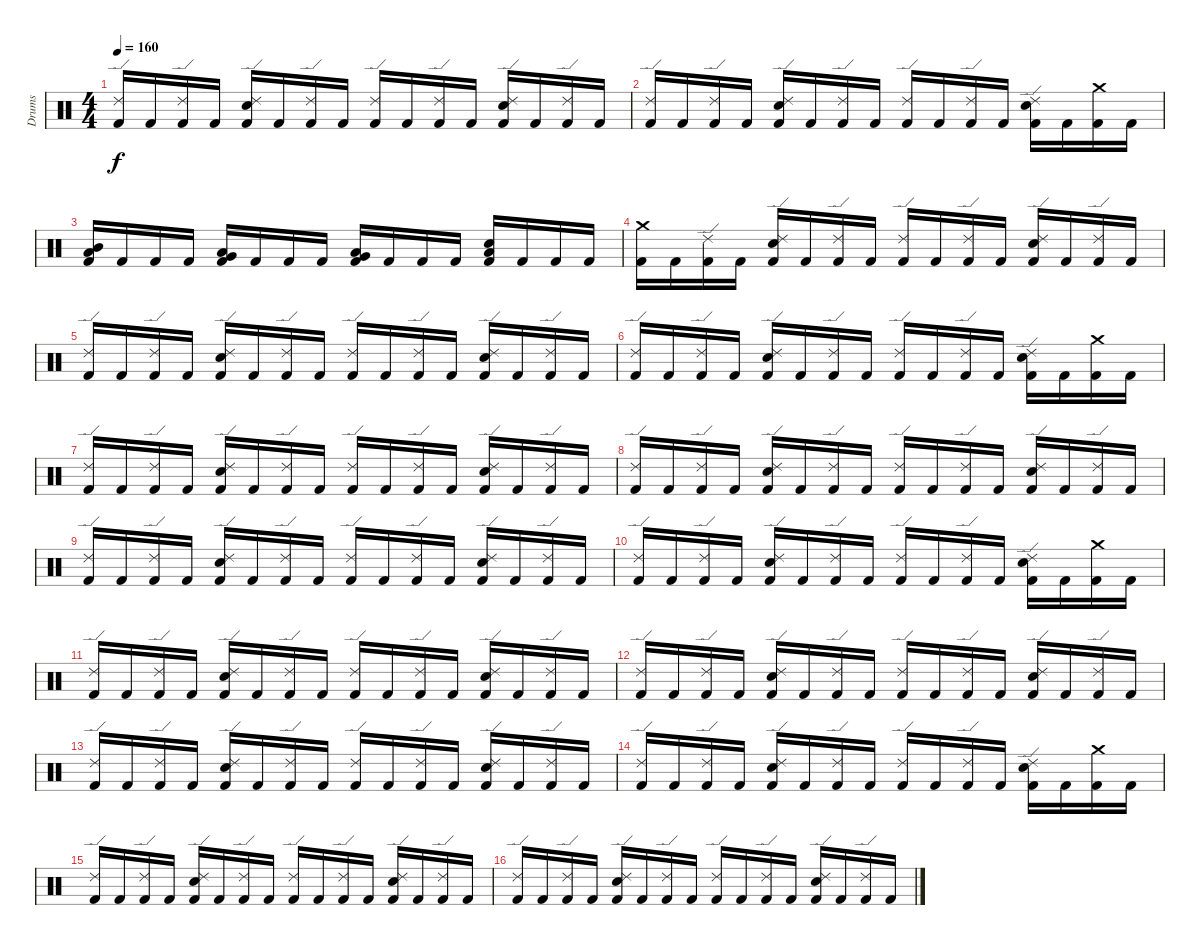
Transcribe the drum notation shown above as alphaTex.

\track ("Drums" "Drums") {instrument percussion}
\staff {score}
\articulation defaults
\ts (4 4)
\tempo 160
\clef neutral
\ks c
("Ride (edge) 2" "Kick (hit) 2").16{dy f} "Kick (hit) 2".16 ("Ride (edge) 2" "Kick (hit) 2").16 "Kick (hit) 2".16 ("Ride (edge) 2" "Electric Snare (hit)" "Kick (hit) 2").16 "Kick (hit) 2".16 ("Ride (edge) 2" "Kick (hit) 2").16 "Kick (hit) 2".16 ("Ride (edge) 2" "Kick (hit) 2").16 "Kick (hit) 2".16 ("Ride (edge) 2" "Kick (hit) 2").16 "Kick (hit) 2".16 ("Ride (edge) 2" "Electric Snare (hit)" "Kick (hit) 2").16 "Kick (hit) 2".16 ("Ride (edge) 2" "Kick (hit) 2").16 "Kick (hit) 2".16 |
("Ride (edge) 2" "Kick (hit) 2").16 "Kick (hit) 2".16 ("Ride (edge) 2" "Kick (hit) 2").16 "Kick (hit) 2".16 ("Ride (edge) 2" "Electric Snare (hit)" "Kick (hit) 2").16 "Kick (hit) 2".16 ("Ride (edge) 2" "Kick (hit) 2").16 "Kick (hit) 2".16 ("Ride (edge) 2" "Kick (hit) 2").16 "Kick (hit) 2".16 ("Ride (edge) 2" "Kick (hit) 2").16 "Kick (hit) 2".16 ("Ride (edge) 2" "Electric Snare (hit)" "Kick (hit) 2").16 "Kick (hit) 2".16 ("Crash medium (hit)" "Kick (hit) 2").16 "Kick (hit) 2".16 |
("Mid Tom (hit)" "Low Tom (hit)" "Kick (hit) 2").16 "Kick (hit) 2".16 "Kick (hit) 2".16 "Kick (hit) 2".16 ("Very Low Tom (hit)" "Low Tom (hit)" "Kick (hit) 2").16 "Kick (hit) 2".16 "Kick (hit) 2".16 "Kick (hit) 2".16 ("Low Floor Tom (hit)" "Very Low Tom (hit)" "Kick (hit) 2").16 "Kick (hit) 2".16 "Kick (hit) 2".16 "Kick (hit) 2".16 ("Low Floor Tom (hit)" "Electric Snare (hit)" "Kick (hit) 2").16 "Kick (hit) 2".16 "Kick (hit) 2".16 "Kick (hit) 2".16 |
("Kick (hit) 2" "Crash medium (hit)").16 "Kick (hit) 2".16 ("Ride (edge) 2" "Kick (hit) 2").16 "Kick (hit) 2".16 ("Ride (edge) 2" "Electric Snare (hit)" "Kick (hit) 2").16 "Kick (hit) 2".16 ("Ride (edge) 2" "Kick (hit) 2").16 "Kick (hit) 2".16 ("Ride (edge) 2" "Kick (hit) 2").16 "Kick (hit) 2".16 ("Ride (edge) 2" "Kick (hit) 2").16 "Kick (hit) 2".16 ("Ride (edge) 2" "Electric Snare (hit)" "Kick (hit) 2").16 "Kick (hit) 2".16 ("Ride (edge) 2" "Kick (hit) 2").16 "Kick (hit) 2".16 |
("Ride (edge) 2" "Kick (hit) 2").16 "Kick (hit) 2".16 ("Ride (edge) 2" "Kick (hit) 2").16 "Kick (hit) 2".16 ("Ride (edge) 2" "Electric Snare (hit)" "Kick (hit) 2").16 "Kick (hit) 2".16 ("Ride (edge) 2" "Kick (hit) 2").16 "Kick (hit) 2".16 ("Ride (edge) 2" "Kick (hit) 2").16 "Kick (hit) 2".16 ("Ride (edge) 2" "Kick (hit) 2").16 "Kick (hit) 2".16 ("Ride (edge) 2" "Electric Snare (hit)" "Kick (hit) 2").16 "Kick (hit) 2".16 ("Ride (edge) 2" "Kick (hit) 2").16 "Kick (hit) 2".16 |
("Ride (edge) 2" "Kick (hit) 2").16 "Kick (hit) 2".16 ("Ride (edge) 2" "Kick (hit) 2").16 "Kick (hit) 2".16 ("Ride (edge) 2" "Electric Snare (hit)" "Kick (hit) 2").16 "Kick (hit) 2".16 ("Ride (edge) 2" "Kick (hit) 2").16 "Kick (hit) 2".16 ("Ride (edge) 2" "Kick (hit) 2").16 "Kick (hit) 2".16 ("Ride (edge) 2" "Kick (hit) 2").16 "Kick (hit) 2".16 ("Ride (edge) 2" "Electric Snare (hit)" "Kick (hit) 2").16 "Kick (hit) 2".16 ("Crash medium (hit)" "Kick (hit) 2").16 "Kick (hit) 2".16 |
("Ride (edge) 2" "Kick (hit) 2").16 "Kick (hit) 2".16 ("Ride (edge) 2" "Kick (hit) 2").16 "Kick (hit) 2".16 ("Ride (edge) 2" "Electric Snare (hit)" "Kick (hit) 2").16 "Kick (hit) 2".16 ("Ride (edge) 2" "Kick (hit) 2").16 "Kick (hit) 2".16 ("Ride (edge) 2" "Kick (hit) 2").16 "Kick (hit) 2".16 ("Ride (edge) 2" "Kick (hit) 2").16 "Kick (hit) 2".16 ("Ride (edge) 2" "Electric Snare (hit)" "Kick (hit) 2").16 "Kick (hit) 2".16 ("Ride (edge) 2" "Kick (hit) 2").16 "Kick (hit) 2".16 |
("Ride (edge) 2" "Kick (hit) 2").16 "Kick (hit) 2".16 ("Ride (edge) 2" "Kick (hit) 2").16 "Kick (hit) 2".16 ("Ride (edge) 2" "Electric Snare (hit)" "Kick (hit) 2").16 "Kick (hit) 2".16 ("Ride (edge) 2" "Kick (hit) 2").16 "Kick (hit) 2".16 ("Ride (edge) 2" "Kick (hit) 2").16 "Kick (hit) 2".16 ("Ride (edge) 2" "Kick (hit) 2").16 "Kick (hit) 2".16 ("Ride (edge) 2" "Electric Snare (hit)" "Kick (hit) 2").16 "Kick (hit) 2".16 ("Ride (edge) 2" "Kick (hit) 2").16 "Kick (hit) 2".16 |
("Ride (edge) 2" "Kick (hit) 2").16 "Kick (hit) 2".16 ("Ride (edge) 2" "Kick (hit) 2").16 "Kick (hit) 2".16 ("Ride (edge) 2" "Electric Snare (hit)" "Kick (hit) 2").16 "Kick (hit) 2".16 ("Ride (edge) 2" "Kick (hit) 2").16 "Kick (hit) 2".16 ("Ride (edge) 2" "Kick (hit) 2").16 "Kick (hit) 2".16 ("Ride (edge) 2" "Kick (hit) 2").16 "Kick (hit) 2".16 ("Ride (edge) 2" "Electric Snare (hit)" "Kick (hit) 2").16 "Kick (hit) 2".16 ("Ride (edge) 2" "Kick (hit) 2").16 "Kick (hit) 2".16 |
("Ride (edge) 2" "Kick (hit) 2").16 "Kick (hit) 2".16 ("Ride (edge) 2" "Kick (hit) 2").16 "Kick (hit) 2".16 ("Ride (edge) 2" "Electric Snare (hit)" "Kick (hit) 2").16 "Kick (hit) 2".16 ("Ride (edge) 2" "Kick (hit) 2").16 "Kick (hit) 2".16 ("Ride (edge) 2" "Kick (hit) 2").16 "Kick (hit) 2".16 ("Ride (edge) 2" "Kick (hit) 2").16 "Kick (hit) 2".16 ("Ride (edge) 2" "Electric Snare (hit)" "Kick (hit) 2").16 "Kick (hit) 2".16 ("Crash medium (hit)" "Kick (hit) 2").16 "Kick (hit) 2".16 |
("Ride (edge) 2" "Kick (hit) 2").16 "Kick (hit) 2".16 ("Ride (edge) 2" "Kick (hit) 2").16 "Kick (hit) 2".16 ("Ride (edge) 2" "Electric Snare (hit)" "Kick (hit) 2").16 "Kick (hit) 2".16 ("Ride (edge) 2" "Kick (hit) 2").16 "Kick (hit) 2".16 ("Ride (edge) 2" "Kick (hit) 2").16 "Kick (hit) 2".16 ("Ride (edge) 2" "Kick (hit) 2").16 "Kick (hit) 2".16 ("Ride (edge) 2" "Electric Snare (hit)" "Kick (hit) 2").16 "Kick (hit) 2".16 ("Ride (edge) 2" "Kick (hit) 2").16 "Kick (hit) 2".16 |
("Ride (edge) 2" "Kick (hit) 2").16 "Kick (hit) 2".16 ("Ride (edge) 2" "Kick (hit) 2").16 "Kick (hit) 2".16 ("Ride (edge) 2" "Electric Snare (hit)" "Kick (hit) 2").16 "Kick (hit) 2".16 ("Ride (edge) 2" "Kick (hit) 2").16 "Kick (hit) 2".16 ("Ride (edge) 2" "Kick (hit) 2").16 "Kick (hit) 2".16 ("Ride (edge) 2" "Kick (hit) 2").16 "Kick (hit) 2".16 ("Ride (edge) 2" "Electric Snare (hit)" "Kick (hit) 2").16 "Kick (hit) 2".16 ("Ride (edge) 2" "Kick (hit) 2").16 "Kick (hit) 2".16 |
("Ride (edge) 2" "Kick (hit) 2").16 "Kick (hit) 2".16 ("Ride (edge) 2" "Kick (hit) 2").16 "Kick (hit) 2".16 ("Ride (edge) 2" "Electric Snare (hit)" "Kick (hit) 2").16 "Kick (hit) 2".16 ("Ride (edge) 2" "Kick (hit) 2").16 "Kick (hit) 2".16 ("Ride (edge) 2" "Kick (hit) 2").16 "Kick (hit) 2".16 ("Ride (edge) 2" "Kick (hit) 2").16 "Kick (hit) 2".16 ("Ride (edge) 2" "Electric Snare (hit)" "Kick (hit) 2").16 "Kick (hit) 2".16 ("Ride (edge) 2" "Kick (hit) 2").16 "Kick (hit) 2".16 |
("Ride (edge) 2" "Kick (hit) 2").16 "Kick (hit) 2".16 ("Ride (edge) 2" "Kick (hit) 2").16 "Kick (hit) 2".16 ("Ride (edge) 2" "Electric Snare (hit)" "Kick (hit) 2").16 "Kick (hit) 2".16 ("Ride (edge) 2" "Kick (hit) 2").16 "Kick (hit) 2".16 ("Ride (edge) 2" "Kick (hit) 2").16 "Kick (hit) 2".16 ("Ride (edge) 2" "Kick (hit) 2").16 "Kick (hit) 2".16 ("Ride (edge) 2" "Electric Snare (hit)" "Kick (hit) 2").16 "Kick (hit) 2".16 ("Crash medium (hit)" "Kick (hit) 2").16 "Kick (hit) 2".16 |
("Ride (edge) 2" "Kick (hit) 2").16 "Kick (hit) 2".16 ("Ride (edge) 2" "Kick (hit) 2").16 "Kick (hit) 2".16 ("Ride (edge) 2" "Electric Snare (hit)" "Kick (hit) 2").16 "Kick (hit) 2".16 ("Ride (edge) 2" "Kick (hit) 2").16 "Kick (hit) 2".16 ("Ride (edge) 2" "Kick (hit) 2").16 "Kick (hit) 2".16 ("Ride (edge) 2" "Kick (hit) 2").16 "Kick (hit) 2".16 ("Ride (edge) 2" "Electric Snare (hit)" "Kick (hit) 2").16 "Kick (hit) 2".16 ("Ride (edge) 2" "Kick (hit) 2").16 "Kick (hit) 2".16 |
("Ride (edge) 2" "Kick (hit) 2").16 "Kick (hit) 2".16 ("Ride (edge) 2" "Kick (hit) 2").16 "Kick (hit) 2".16 ("Ride (edge) 2" "Electric Snare (hit)" "Kick (hit) 2").16 "Kick (hit) 2".16 ("Ride (edge) 2" "Kick (hit) 2").16 "Kick (hit) 2".16 ("Ride (edge) 2" "Kick (hit) 2").16 "Kick (hit) 2".16 ("Ride (edge) 2" "Kick (hit) 2").16 "Kick (hit) 2".16 ("Ride (edge) 2" "Electric Snare (hit)" "Kick (hit) 2").16 "Kick (hit) 2".16 ("Ride (edge) 2" "Kick (hit) 2").16 "Kick (hit) 2".16
